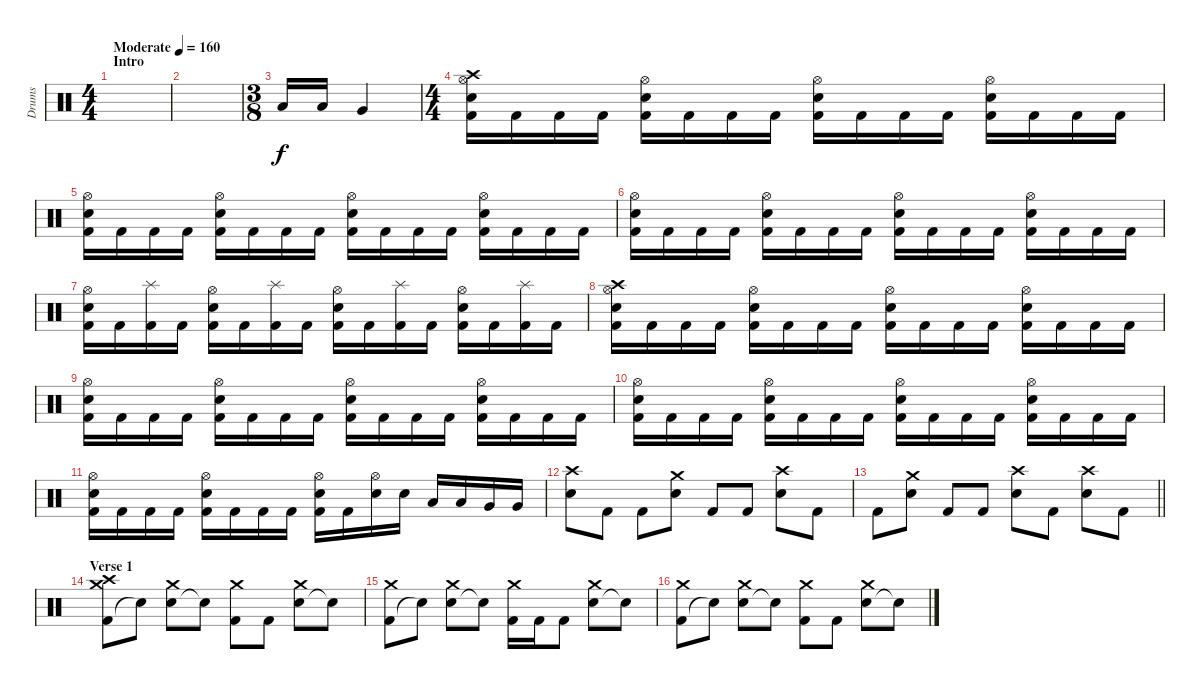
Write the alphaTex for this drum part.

\track ("Drums" "Drums") {instrument percussion}
\staff {score}
\articulation defaults
\ts (4 4)
\section ("" "Intro")
\tempo (160 "Moderate")
\clef neutral
\ks c
|
|
\ts (3 8)
"Low Tom (hit)".16 "Low Tom (hit)".16 "Very Low Tom (hit)".4 |
\ts (4 4)
("Snare (hit) 2" "Kick (hit) 2" "Hi-Hat (open)" "Crash high (hit)").16 "Kick (hit) 2".16 "Kick (hit) 2".16 "Kick (hit) 2".16 ("Snare (hit) 2" "Kick (hit) 2" "Hi-Hat (open)").16 "Kick (hit) 2".16 "Kick (hit) 2".16 "Kick (hit) 2".16 ("Snare (hit) 2" "Kick (hit) 2" "Hi-Hat (open)").16 "Kick (hit) 2".16 "Kick (hit) 2".16 "Kick (hit) 2".16 ("Snare (hit) 2" "Kick (hit) 2" "Hi-Hat (open)").16 "Kick (hit) 2".16 "Kick (hit) 2".16 "Kick (hit) 2".16 |
("Snare (hit) 2" "Kick (hit) 2" "Hi-Hat (open)").16 "Kick (hit) 2".16 "Kick (hit) 2".16 "Kick (hit) 2".16 ("Snare (hit) 2" "Kick (hit) 2" "Hi-Hat (open)").16 "Kick (hit) 2".16 "Kick (hit) 2".16 "Kick (hit) 2".16 ("Snare (hit) 2" "Kick (hit) 2" "Hi-Hat (open)").16 "Kick (hit) 2".16 "Kick (hit) 2".16 "Kick (hit) 2".16 ("Snare (hit) 2" "Kick (hit) 2" "Hi-Hat (open)").16 "Kick (hit) 2".16 "Kick (hit) 2".16 "Kick (hit) 2".16 |
("Snare (hit) 2" "Kick (hit) 2" "Hi-Hat (open)").16 "Kick (hit) 2".16 "Kick (hit) 2".16 "Kick (hit) 2".16 ("Snare (hit) 2" "Kick (hit) 2" "Hi-Hat (open)").16 "Kick (hit) 2".16 "Kick (hit) 2".16 "Kick (hit) 2".16 ("Snare (hit) 2" "Kick (hit) 2" "Hi-Hat (open)").16 "Kick (hit) 2".16 "Kick (hit) 2".16 "Kick (hit) 2".16 ("Snare (hit) 2" "Kick (hit) 2" "Hi-Hat (open)").16 "Kick (hit) 2".16 "Kick (hit) 2".16 "Kick (hit) 2".16 |
("Snare (hit) 2" "Kick (hit) 2" "Hi-Hat (open)").16 "Kick (hit) 2".16 ("Kick (hit) 2" "Splash (hit)").16 "Kick (hit) 2".16 ("Snare (hit) 2" "Kick (hit) 2" "Hi-Hat (open)").16 "Kick (hit) 2".16 ("Kick (hit) 2" "Splash (hit)").16 "Kick (hit) 2".16 ("Snare (hit) 2" "Kick (hit) 2" "Hi-Hat (open)").16 "Kick (hit) 2".16 ("Kick (hit) 2" "Splash (hit)").16 "Kick (hit) 2".16 ("Snare (hit) 2" "Kick (hit) 2" "Hi-Hat (open)").16 "Kick (hit) 2".16 ("Kick (hit) 2" "Splash (hit)").16 "Kick (hit) 2".16 |
("Snare (hit) 2" "Kick (hit) 2" "Hi-Hat (open)" "Crash high (hit)").16 "Kick (hit) 2".16 "Kick (hit) 2".16 "Kick (hit) 2".16 ("Snare (hit) 2" "Kick (hit) 2" "Hi-Hat (open)").16 "Kick (hit) 2".16 "Kick (hit) 2".16 "Kick (hit) 2".16 ("Snare (hit) 2" "Kick (hit) 2" "Hi-Hat (open)").16 "Kick (hit) 2".16 "Kick (hit) 2".16 "Kick (hit) 2".16 ("Snare (hit) 2" "Kick (hit) 2" "Hi-Hat (open)").16 "Kick (hit) 2".16 "Kick (hit) 2".16 "Kick (hit) 2".16 |
("Snare (hit) 2" "Kick (hit) 2" "Hi-Hat (open)").16 "Kick (hit) 2".16 "Kick (hit) 2".16 "Kick (hit) 2".16 ("Snare (hit) 2" "Kick (hit) 2" "Hi-Hat (open)").16 "Kick (hit) 2".16 "Kick (hit) 2".16 "Kick (hit) 2".16 ("Snare (hit) 2" "Kick (hit) 2" "Hi-Hat (open)").16 "Kick (hit) 2".16 "Kick (hit) 2".16 "Kick (hit) 2".16 ("Snare (hit) 2" "Kick (hit) 2" "Hi-Hat (open)").16 "Kick (hit) 2".16 "Kick (hit) 2".16 "Kick (hit) 2".16 |
("Snare (hit) 2" "Kick (hit) 2" "Hi-Hat (open)").16 "Kick (hit) 2".16 "Kick (hit) 2".16 "Kick (hit) 2".16 ("Snare (hit) 2" "Kick (hit) 2" "Hi-Hat (open)").16 "Kick (hit) 2".16 "Kick (hit) 2".16 "Kick (hit) 2".16 ("Snare (hit) 2" "Kick (hit) 2" "Hi-Hat (open)").16 "Kick (hit) 2".16 "Kick (hit) 2".16 "Kick (hit) 2".16 ("Snare (hit) 2" "Kick (hit) 2" "Hi-Hat (open)").16 "Kick (hit) 2".16 "Kick (hit) 2".16 "Kick (hit) 2".16 |
("Snare (hit) 2" "Kick (hit) 2" "Hi-Hat (open)").16 "Kick (hit) 2".16 "Kick (hit) 2".16 "Kick (hit) 2".16 ("Snare (hit) 2" "Kick (hit) 2" "Hi-Hat (open)").16 "Kick (hit) 2".16 "Kick (hit) 2".16 "Kick (hit) 2".16 ("Snare (hit) 2" "Kick (hit) 2" "Hi-Hat (open)").16 "Kick (hit) 2".16 ("Snare (hit) 2" "Hi-Hat (open)").16 "Snare (hit) 2".16 "Low Tom (hit)".16 "Low Tom (hit)".16 "Very Low Tom (hit)".16 "Very Low Tom (hit)".16 |
("Snare (hit) 2" "Crash high (hit)").8 "Kick (hit) 2".8 "Kick (hit) 2".8 ("Snare (hit) 2" "Crash medium (hit)").8 "Kick (hit) 2".8 "Kick (hit) 2".8 ("Snare (hit) 2" "Crash high (hit)").8 "Kick (hit) 2".8 |
\barLineRight lightlight "Kick (hit) 2".8
("Snare (hit) 2" "Crash medium (hit)").8 "Kick (hit) 2".8 "Kick (hit) 2".8 ("Snare (hit) 2" "Crash high (hit)").8 "Kick (hit) 2".8 ("Snare (hit) 2" "Crash high (hit)").8 "Kick (hit) 2".8 |
\section ("" "Verse 1")
("Kick (hit) 2" "Crash medium (hit)" "Crash high (hit)").8 "Snare (hit)"{t}.8 ("Snare (hit) 2" "Crash medium (hit)").8 "Snare (hit)"{t}.8 ("Kick (hit) 2" "Crash medium (hit)").8 "Kick (hit) 2".8 ("Snare (hit) 2" "Crash medium (hit)").8 "Snare (hit)"{t}.8 |
("Kick (hit) 2" "Crash medium (hit)").8 "Snare (hit)"{t}.8 ("Snare (hit) 2" "Crash medium (hit)").8 "Snare (hit)"{t}.8 ("Kick (hit) 2" "Crash medium (hit)").16 "Kick (hit) 2".16 "Kick (hit) 2".8 ("Snare (hit) 2" "Crash medium (hit)").8 "Snare (hit)"{t}.8 |
("Kick (hit) 2" "Crash medium (hit)").8 "Snare (hit)"{t}.8 ("Snare (hit) 2" "Crash medium (hit)").8 "Snare (hit)"{t}.8 ("Kick (hit) 2" "Crash medium (hit)").8 "Kick (hit) 2".8 ("Snare (hit) 2" "Crash medium (hit)").8 "Snare (hit)"{t}.8
